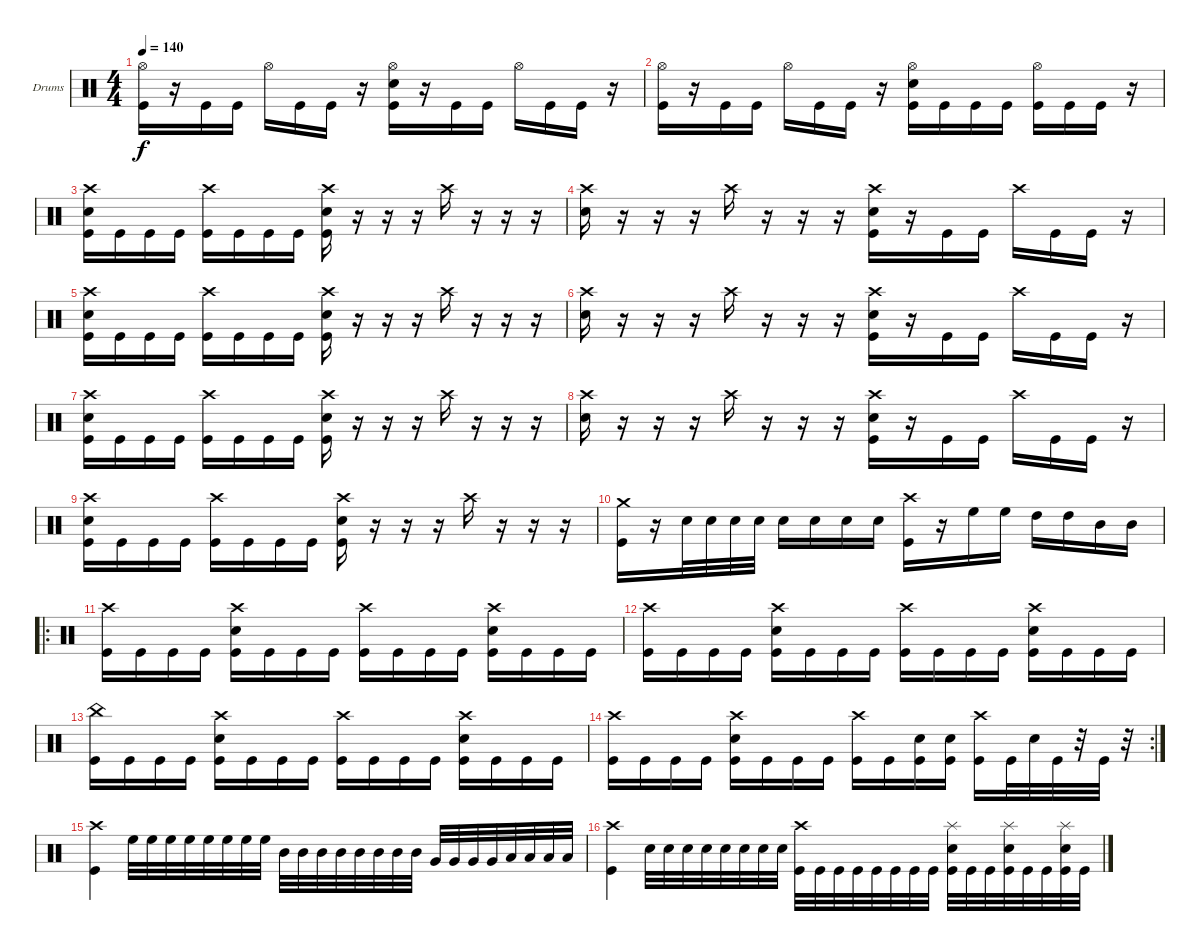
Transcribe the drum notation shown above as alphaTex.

\bracketExtendMode groupsimilarinstruments
\firstSystemTrackNameOrientation horizontal
\otherSystemsTrackNameOrientation horizontal
\track ("Drumkit" "Drums") {instrument percussion}
\staff {score}
\articulation defaults
\ts (4 4)
\tempo 140
\clef neutral
\ks c
("Hi-Hat (open)" "Kick (hit)").16{dy f} r.16 "Kick (hit)".16 "Kick (hit)".16 "Hi-Hat (open)".16 "Kick (hit)".16 "Kick (hit)".16 r.16 ("Hi-Hat (open)" "Snare (hit) 2" "Kick (hit)").16 r.16 "Kick (hit)".16 "Kick (hit)".16 "Hi-Hat (open)".16 "Kick (hit)".16 "Kick (hit)".16 r.16 |
("Hi-Hat (open)" "Kick (hit)").16 r.16 "Kick (hit)".16 "Kick (hit)".16 "Hi-Hat (open)".16 "Kick (hit)".16 "Kick (hit)".16 r.16 ("Hi-Hat (open)" "Snare (hit) 2" "Kick (hit)").16 "Kick (hit)".16 "Kick (hit)".16 "Kick (hit)".16 ("Hi-Hat (open)" "Kick (hit)").16 "Kick (hit)".16 "Kick (hit)".16 r.16 |
("Crash high (hit)" "Snare (hit) 2" "Kick (hit)").16 "Kick (hit)".16 "Kick (hit)".16 "Kick (hit)".16 ("Crash high (hit)" "Kick (hit)").16 "Kick (hit)".16 "Kick (hit)".16 "Kick (hit)".16 ("Crash high (hit)" "Snare (hit) 2" "Kick (hit)").16 r.16 r.16 r.16 "Crash high (hit)".16 r.16 r.16 r.16 |
("Crash high (hit)" "Snare (hit) 2").16 r.16 r.16 r.16 "Crash high (hit)".16 r.16 r.16 r.16 ("Crash high (hit)" "Snare (hit) 2" "Kick (hit)").16 r.16 "Kick (hit)".16 "Kick (hit)".16 "Crash high (hit)".16 "Kick (hit)".16 "Kick (hit)".16 r.16 |
("Crash high (hit)" "Snare (hit) 2" "Kick (hit)").16 "Kick (hit)".16 "Kick (hit)".16 "Kick (hit)".16 ("Crash high (hit)" "Kick (hit)").16 "Kick (hit)".16 "Kick (hit)".16 "Kick (hit)".16 ("Crash high (hit)" "Snare (hit) 2" "Kick (hit)").16 r.16 r.16 r.16 "Crash high (hit)".16 r.16 r.16 r.16 |
("Crash high (hit)" "Snare (hit) 2").16 r.16 r.16 r.16 "Crash high (hit)".16 r.16 r.16 r.16 ("Crash high (hit)" "Snare (hit) 2" "Kick (hit)").16 r.16 "Kick (hit)".16 "Kick (hit)".16 "Crash high (hit)".16 "Kick (hit)".16 "Kick (hit)".16 r.16 |
("Crash high (hit)" "Snare (hit) 2" "Kick (hit)").16 "Kick (hit)".16 "Kick (hit)".16 "Kick (hit)".16 ("Crash high (hit)" "Kick (hit)").16 "Kick (hit)".16 "Kick (hit)".16 "Kick (hit)".16 ("Crash high (hit)" "Snare (hit) 2" "Kick (hit)").16 r.16 r.16 r.16 "Crash high (hit)".16 r.16 r.16 r.16 |
("Crash high (hit)" "Snare (hit) 2").16 r.16 r.16 r.16 "Crash high (hit)".16 r.16 r.16 r.16 ("Crash high (hit)" "Snare (hit) 2" "Kick (hit)").16 r.16 "Kick (hit)".16 "Kick (hit)".16 "Crash high (hit)".16 "Kick (hit)".16 "Kick (hit)".16 r.16 |
("Crash high (hit)" "Snare (hit) 2" "Kick (hit)").16 "Kick (hit)".16 "Kick (hit)".16 "Kick (hit)".16 ("Crash high (hit)" "Kick (hit)").16 "Kick (hit)".16 "Kick (hit)".16 "Kick (hit)".16 ("Crash high (hit)" "Snare (hit) 2" "Kick (hit)").16 r.16 r.16 r.16 "Crash high (hit)".16 r.16 r.16 r.16 |
("Crash medium (hit)" "Kick (hit)").16 r.16 "Snare (hit) 2".32 "Snare (hit) 2".32 "Snare (hit) 2".32 "Snare (hit) 2".32 "Snare (hit) 2".16 "Snare (hit) 2".16 "Snare (hit) 2".16 "Snare (hit) 2".16 ("Crash high (hit)" "Kick (hit)").16 r.16 "High Floor Tom (hit)".16 "High Floor Tom (hit)".16 "High Tom (hit)".16 "High Tom (hit)".16 "Mid Tom (hit)".16 "Mid Tom (hit)".16 |
\ro
("Crash high (hit)" "Kick (hit)").16 "Kick (hit)".16 "Kick (hit)".16 "Kick (hit)".16 ("Crash high (hit)" "Snare (hit) 2" "Kick (hit)").16 "Kick (hit)".16 "Kick (hit)".16 "Kick (hit)".16 ("Crash high (hit)" "Kick (hit)").16 "Kick (hit)".16 "Kick (hit)".16 "Kick (hit)".16 ("Crash high (hit)" "Snare (hit) 2" "Kick (hit)").16 "Kick (hit)".16 "Kick (hit)".16 "Kick (hit)".16 |
("Crash high (hit)" "Kick (hit)").16 "Kick (hit)".16 "Kick (hit)".16 "Kick (hit)".16 ("Crash high (hit)" "Snare (hit) 2" "Kick (hit)").16 "Kick (hit)".16 "Kick (hit)".16 "Kick (hit)".16 ("Crash high (hit)" "Kick (hit)").16 "Kick (hit)".16 "Kick (hit)".16 "Kick (hit)".16 ("Crash high (hit)" "Snare (hit) 2" "Kick (hit)").16 "Kick (hit)".16 "Kick (hit)".16 "Kick (hit)".16 |
("China (hit)" "Kick (hit)").16 "Kick (hit)".16 "Kick (hit)".16 "Kick (hit)".16 ("Crash high (hit)" "Snare (hit) 2" "Kick (hit)").16 "Kick (hit)".16 "Kick (hit)".16 "Kick (hit)".16 ("Crash high (hit)" "Kick (hit)").16 "Kick (hit)".16 "Kick (hit)".16 "Kick (hit)".16 ("Crash high (hit)" "Snare (hit) 2" "Kick (hit)").16 "Kick (hit)".16 "Kick (hit)".16 "Kick (hit)".16 |
\rc 2
("Crash high (hit)" "Kick (hit)").16 "Kick (hit)".16 "Kick (hit)".16 "Kick (hit)".16 ("Crash high (hit)" "Snare (hit) 2" "Kick (hit)").16 "Kick (hit)".16 "Kick (hit)".16 "Kick (hit)".16 ("Crash high (hit)" "Kick (hit)").16 "Kick (hit)".16 ("Snare (hit) 2" "Kick (hit)").16 ("Snare (hit) 2" "Kick (hit)").16 ("Crash high (hit)" "Kick (hit)").16 "Kick (hit)".32 "Snare (hit) 2".32 "Kick (hit)".32 r.32 "Kick (hit)".32 r.32 |
("Kick (hit)" "Crash high (hit)").4 "High Floor Tom (hit)".32 "High Floor Tom (hit)".32 "High Floor Tom (hit)".32 "High Floor Tom (hit)".32 "High Floor Tom (hit)".32 "High Floor Tom (hit)".32 "High Floor Tom (hit)".32 "High Floor Tom (hit)".32 "Mid Tom (hit)".32 "Mid Tom (hit)".32 "Mid Tom (hit)".32 "Mid Tom (hit)".32 "Mid Tom (hit)".32 "Mid Tom (hit)".32 "Mid Tom (hit)".32 "Mid Tom (hit)".32 "Very Low Tom (hit)".32 "Very Low Tom (hit)".32 "Very Low Tom (hit)".32 "Very Low Tom (hit)".32 "Low Tom (hit)".32 "Low Tom (hit)".32 "Low Tom (hit)".32 "Low Tom (hit)".32 |
("Kick (hit)" "Crash high (hit)").4 "Snare (hit) 2".32 "Snare (hit) 2".32 "Snare (hit) 2".32 "Snare (hit) 2".32 "Snare (hit) 2".32 "Snare (hit) 2".32 "Snare (hit) 2".32 "Snare (hit) 2".32 ("Kick (hit)" "Crash high (hit)").32 "Kick (hit)".32 "Kick (hit)".32 "Kick (hit)".32 "Kick (hit)".32 "Kick (hit)".32 "Kick (hit)".32 "Kick (hit)".32 ("Kick (hit)" "Snare (hit) 2" "Splash (hit)").32 "Kick (hit)".32 "Kick (hit)".32 ("Kick (hit)" "Snare (hit) 2" "Splash (hit)").32 "Kick (hit)".32 "Kick (hit)".32 ("Kick (hit)" "Snare (hit) 2" "Splash (hit)").32 "Kick (hit)".32
